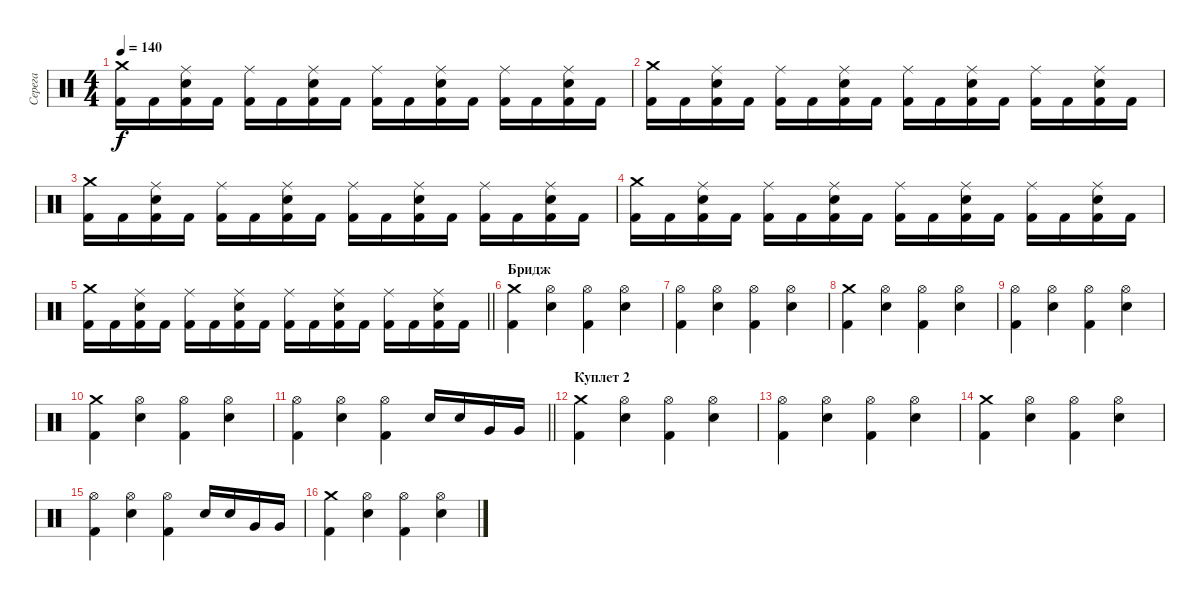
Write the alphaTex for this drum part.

\track ("Серега" "Серега") {instrument percussion}
\staff {score}
\articulation defaults
\ts (4 4)
\tempo 140
\clef neutral
\ks c
("Kick (hit) 2" "Crash medium (hit)").16{dy f} "Kick (hit) 2".16 ("Kick (hit) 2" "Electric Snare (hit)" "Ride (middle)").16 "Kick (hit) 2".16 ("Kick (hit) 2" "Ride (middle)").16 "Kick (hit) 2".16 ("Kick (hit) 2" "Electric Snare (hit)" "Ride (middle)").16 "Kick (hit) 2".16 ("Kick (hit) 2" "Ride (middle)").16 "Kick (hit) 2".16 ("Kick (hit) 2" "Electric Snare (hit)" "Ride (middle)").16 "Kick (hit) 2".16 ("Kick (hit) 2" "Ride (middle)").16 "Kick (hit) 2".16 ("Kick (hit) 2" "Electric Snare (hit)" "Ride (middle)").16 "Kick (hit) 2".16 |
("Kick (hit) 2" "Crash medium (hit)").16 "Kick (hit) 2".16 ("Kick (hit) 2" "Electric Snare (hit)" "Ride (middle)").16 "Kick (hit) 2".16 ("Kick (hit) 2" "Ride (middle)").16 "Kick (hit) 2".16 ("Kick (hit) 2" "Electric Snare (hit)" "Ride (middle)").16 "Kick (hit) 2".16 ("Kick (hit) 2" "Ride (middle)").16 "Kick (hit) 2".16 ("Kick (hit) 2" "Electric Snare (hit)" "Ride (middle)").16 "Kick (hit) 2".16 ("Kick (hit) 2" "Ride (middle)").16 "Kick (hit) 2".16 ("Kick (hit) 2" "Electric Snare (hit)" "Ride (middle)").16 "Kick (hit) 2".16 |
("Kick (hit) 2" "Crash medium (hit)").16 "Kick (hit) 2".16 ("Kick (hit) 2" "Electric Snare (hit)" "Ride (middle)").16 "Kick (hit) 2".16 ("Kick (hit) 2" "Ride (middle)").16 "Kick (hit) 2".16 ("Kick (hit) 2" "Electric Snare (hit)" "Ride (middle)").16 "Kick (hit) 2".16 ("Kick (hit) 2" "Ride (middle)").16 "Kick (hit) 2".16 ("Kick (hit) 2" "Electric Snare (hit)" "Ride (middle)").16 "Kick (hit) 2".16 ("Kick (hit) 2" "Ride (middle)").16 "Kick (hit) 2".16 ("Kick (hit) 2" "Electric Snare (hit)" "Ride (middle)").16 "Kick (hit) 2".16 |
("Kick (hit) 2" "Crash medium (hit)").16 "Kick (hit) 2".16 ("Kick (hit) 2" "Electric Snare (hit)" "Ride (middle)").16 "Kick (hit) 2".16 ("Kick (hit) 2" "Ride (middle)").16 "Kick (hit) 2".16 ("Kick (hit) 2" "Electric Snare (hit)" "Ride (middle)").16 "Kick (hit) 2".16 ("Kick (hit) 2" "Ride (middle)").16 "Kick (hit) 2".16 ("Kick (hit) 2" "Electric Snare (hit)" "Ride (middle)").16 "Kick (hit) 2".16 ("Kick (hit) 2" "Ride (middle)").16 "Kick (hit) 2".16 ("Kick (hit) 2" "Electric Snare (hit)" "Ride (middle)").16 "Kick (hit) 2".16 |
\barLineRight lightlight
("Kick (hit) 2" "Crash medium (hit)").16 "Kick (hit) 2".16 ("Kick (hit) 2" "Electric Snare (hit)" "Ride (middle)").16 "Kick (hit) 2".16 ("Kick (hit) 2" "Ride (middle)").16 "Kick (hit) 2".16 ("Kick (hit) 2" "Electric Snare (hit)" "Ride (middle)").16 "Kick (hit) 2".16 ("Kick (hit) 2" "Ride (middle)").16 "Kick (hit) 2".16 ("Kick (hit) 2" "Electric Snare (hit)" "Ride (middle)").16 "Kick (hit) 2".16 ("Kick (hit) 2" "Ride (middle)").16 "Kick (hit) 2".16 ("Kick (hit) 2" "Electric Snare (hit)" "Ride (middle)").16 "Kick (hit) 2".16 |
\section ("" "Бридж")
("Crash medium (hit)" "Kick (hit) 2").4 ("Hi-Hat (open)" "Electric Snare (hit)").4 ("Hi-Hat (open)" "Kick (hit) 2").4 ("Hi-Hat (open)" "Electric Snare (hit)").4 |
("Hi-Hat (open)" "Kick (hit) 2").4 ("Hi-Hat (open)" "Electric Snare (hit)").4 ("Hi-Hat (open)" "Kick (hit) 2").4 ("Hi-Hat (open)" "Electric Snare (hit)").4 |
("Crash medium (hit)" "Kick (hit) 2").4 ("Hi-Hat (open)" "Electric Snare (hit)").4 ("Hi-Hat (open)" "Kick (hit) 2").4 ("Hi-Hat (open)" "Electric Snare (hit)").4 |
("Hi-Hat (open)" "Kick (hit) 2").4 ("Hi-Hat (open)" "Electric Snare (hit)").4 ("Hi-Hat (open)" "Kick (hit) 2").4 ("Hi-Hat (open)" "Electric Snare (hit)").4 |
("Crash medium (hit)" "Kick (hit) 2").4 ("Hi-Hat (open)" "Electric Snare (hit)").4 ("Hi-Hat (open)" "Kick (hit) 2").4 ("Hi-Hat (open)" "Electric Snare (hit)").4 |
\barLineRight lightlight
("Hi-Hat (open)" "Kick (hit) 2").4 ("Hi-Hat (open)" "Electric Snare (hit)").4 ("Hi-Hat (open)" "Kick (hit) 2").4 "Electric Snare (hit)".16 "Electric Snare (hit)".16 "Very Low Tom (hit)".16 "Very Low Tom (hit)".16 |
\section ("" "Куплет 2")
("Crash medium (hit)" "Kick (hit) 2").4 ("Hi-Hat (open)" "Electric Snare (hit)").4 ("Hi-Hat (open)" "Kick (hit) 2").4 ("Hi-Hat (open)" "Electric Snare (hit)").4 |
("Hi-Hat (open)" "Kick (hit) 2").4 ("Hi-Hat (open)" "Electric Snare (hit)").4 ("Hi-Hat (open)" "Kick (hit) 2").4 ("Hi-Hat (open)" "Electric Snare (hit)").4 |
("Crash medium (hit)" "Kick (hit) 2").4 ("Hi-Hat (open)" "Electric Snare (hit)").4 ("Hi-Hat (open)" "Kick (hit) 2").4 ("Hi-Hat (open)" "Electric Snare (hit)").4 |
("Hi-Hat (open)" "Kick (hit) 2").4 ("Hi-Hat (open)" "Electric Snare (hit)").4 ("Hi-Hat (open)" "Kick (hit) 2").4 "Electric Snare (hit)".16 "Electric Snare (hit)".16 "Very Low Tom (hit)".16 "Very Low Tom (hit)".16 |
("Crash medium (hit)" "Kick (hit) 2").4 ("Hi-Hat (open)" "Electric Snare (hit)").4 ("Hi-Hat (open)" "Kick (hit) 2").4 ("Hi-Hat (open)" "Electric Snare (hit)").4
